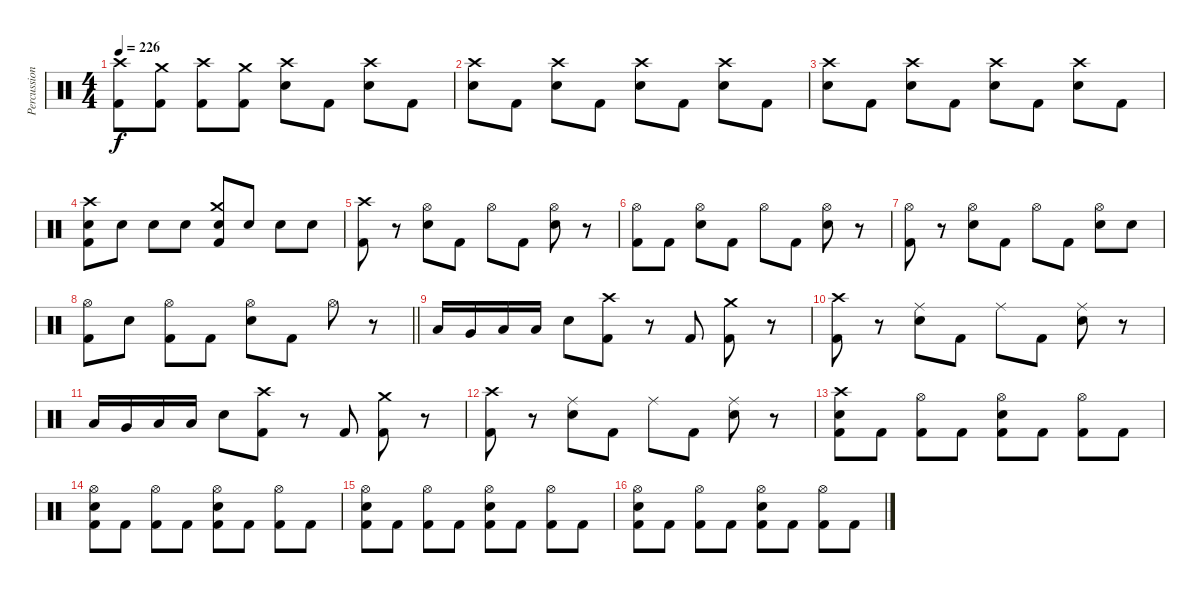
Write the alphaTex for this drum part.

\track ("Percussion" "Percussion") {instrument percussion}
\staff {score}
\articulation defaults
\ts (4 4)
\tempo 226
\clef neutral
\ks c
("Crash high (hit)" "Kick (hit) 2").8{dy f} ("Crash medium (hit)" "Kick (hit) 2").8 ("Crash high (hit)" "Kick (hit) 2").8 ("Crash medium (hit)" "Kick (hit) 2").8 ("Crash high (hit)" "Snare (hit) 2").8 "Kick (hit) 2".8 ("Crash high (hit)" "Snare (hit) 2").8 "Kick (hit) 2".8 |
("Crash high (hit)" "Snare (hit) 2").8 "Kick (hit) 2".8 ("Crash high (hit)" "Snare (hit) 2").8 "Kick (hit) 2".8 ("Crash high (hit)" "Snare (hit) 2").8 "Kick (hit) 2".8 ("Crash high (hit)" "Snare (hit) 2").8 "Kick (hit) 2".8 |
("Crash high (hit)" "Snare (hit) 2").8 "Kick (hit) 2".8 ("Crash high (hit)" "Snare (hit) 2").8 "Kick (hit) 2".8 ("Crash high (hit)" "Snare (hit) 2").8 "Kick (hit) 2".8 ("Crash high (hit)" "Snare (hit) 2").8 "Kick (hit) 2".8 |
("Crash high (hit)" "Snare (hit) 2" "Kick (hit) 2").8 "Snare (hit) 2".8 "Snare (hit) 2".8 "Snare (hit) 2".8 ("Crash medium (hit)" "Snare (hit) 2" "Kick (hit) 2").8 "Snare (hit) 2".8 "Snare (hit) 2".8 "Snare (hit) 2".8 |
("Crash high (hit)" "Kick (hit) 2").8 r.8 ("Hi-Hat (open)" "Snare (hit) 2").8 "Kick (hit) 2".8 "Hi-Hat (open)".8 "Kick (hit) 2".8 ("Hi-Hat (open)" "Snare (hit) 2").8 r.8 |
("Hi-Hat (open)" "Kick (hit) 2").8 "Kick (hit) 2".8 ("Hi-Hat (open)" "Snare (hit) 2").8 "Kick (hit) 2".8 "Hi-Hat (open)".8 "Kick (hit) 2".8 ("Hi-Hat (open)" "Snare (hit) 2").8 r.8 |
("Hi-Hat (open)" "Kick (hit) 2").8 r.8 ("Hi-Hat (open)" "Snare (hit) 2").8 "Kick (hit) 2".8 "Hi-Hat (open)".8 "Kick (hit) 2".8 ("Hi-Hat (open)" "Snare (hit) 2").8 "Snare (hit) 2".8 |
\barLineRight lightlight
("Hi-Hat (open)" "Kick (hit) 2").8 "Snare (hit) 2".8 ("Hi-Hat (open)" "Kick (hit) 2").8 "Kick (hit) 2".8 ("Hi-Hat (open)" "Snare (hit) 2").8 "Kick (hit) 2".8 "Hi-Hat (open)".8 r.8 |
\section ("" "")
"Low Tom (hit)".16 "Very Low Tom (hit)".16 "Low Floor Tom (hit)".16 "Low Floor Tom (hit)".16 "Snare (hit) 2".8 ("Crash high (hit)" "Kick (hit) 2").8 r.8 "Kick (hit) 2".8 ("Crash medium (hit)" "Kick (hit) 2").8 r.8 |
("Crash high (hit)" "Kick (hit) 2").8 r.8 ("Ride (middle)" "Snare (hit) 2").8 "Kick (hit) 2".8 "Ride (middle)".8 "Kick (hit) 2".8 ("Ride (middle)" "Snare (hit) 2").8 r.8 |
"Low Tom (hit)".16 "Very Low Tom (hit)".16 "Low Floor Tom (hit)".16 "Low Floor Tom (hit)".16 "Snare (hit) 2".8 ("Crash high (hit)" "Kick (hit) 2").8 r.8 "Kick (hit) 2".8 ("Crash medium (hit)" "Kick (hit) 2").8 r.8 |
("Crash high (hit)" "Kick (hit) 2").8 r.8 ("Ride (middle)" "Snare (hit) 2").8 "Kick (hit) 2".8 "Ride (middle)".8 "Kick (hit) 2".8 ("Ride (middle)" "Snare (hit) 2").8 r.8 |
("Crash high (hit)" "Snare (hit) 2" "Kick (hit) 2").8 "Kick (hit) 2".8 ("Hi-Hat (open)" "Kick (hit) 2").8 "Kick (hit) 2".8 ("Hi-Hat (open)" "Snare (hit) 2" "Kick (hit) 2").8 "Kick (hit) 2".8 ("Hi-Hat (open)" "Kick (hit) 2").8 "Kick (hit) 2".8 |
("Hi-Hat (open)" "Snare (hit) 2" "Kick (hit) 2").8 "Kick (hit) 2".8 ("Hi-Hat (open)" "Kick (hit) 2").8 "Kick (hit) 2".8 ("Hi-Hat (open)" "Snare (hit) 2" "Kick (hit) 2").8 "Kick (hit) 2".8 ("Hi-Hat (open)" "Kick (hit) 2").8 "Kick (hit) 2".8 |
("Hi-Hat (open)" "Snare (hit) 2" "Kick (hit) 2").8 "Kick (hit) 2".8 ("Hi-Hat (open)" "Kick (hit) 2").8 "Kick (hit) 2".8 ("Hi-Hat (open)" "Snare (hit) 2" "Kick (hit) 2").8 "Kick (hit) 2".8 ("Hi-Hat (open)" "Kick (hit) 2").8 "Kick (hit) 2".8 |
("Hi-Hat (open)" "Snare (hit) 2" "Kick (hit) 2").8 "Kick (hit) 2".8 ("Hi-Hat (open)" "Kick (hit) 2").8 "Kick (hit) 2".8 ("Hi-Hat (open)" "Snare (hit) 2" "Kick (hit) 2").8 "Kick (hit) 2".8 ("Hi-Hat (open)" "Kick (hit) 2").8 "Kick (hit) 2".8
